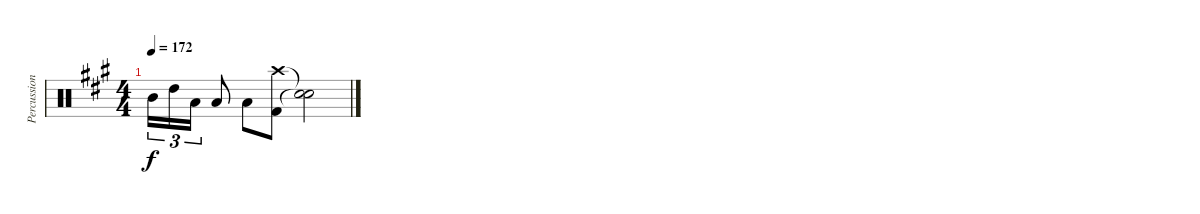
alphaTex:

\track ("Percussion" "Percussion") {instrument percussion}
\staff {score}
\articulation defaults
\ts (4 4)
\tempo 172
\clef neutral
\ks a "Mid Tom (hit)".16{tu (3 2) dy f} "High Tom (hit)".16{tu (3 2)} "Low Floor Tom (hit)".16{tu (3 2)} "Low Floor Tom (hit)".8 "Low Floor Tom (hit)".8
("Crash high (hit)" "Kick (hit) 2").8 ("Snare (hit)"{t} "Snare (hit)"{t}).2
